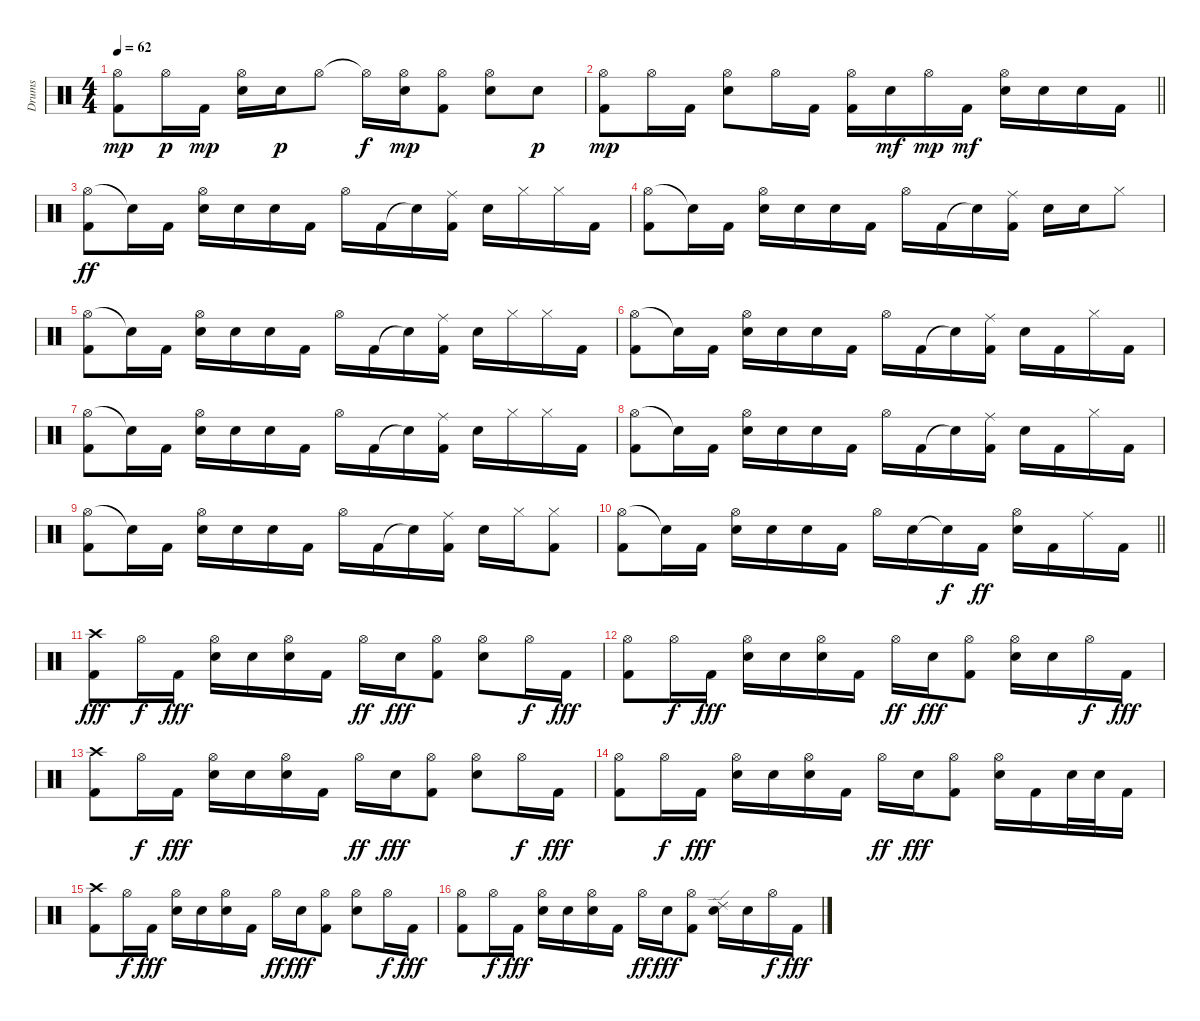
\track ("Drums" "Drums") {instrument percussion}
\staff {score}
\articulation defaults
\ts (4 4)
\tempo 62
\clef neutral
\ks c
("Hi-Hat (open)" "Kick (hit) 2").8{dy mp} "Hi-Hat (open)".16{dy p} "Kick (hit) 2".16{dy mp} ("Hi-Hat (open)" "Snare (hit) 2").16 "Snare (hit) 2".16{dy p} "Hi-Hat (open)".8 "Hi-Hat (open)"{t}.16{dy f} ("Hi-Hat (open)" "Snare (hit) 2").16{dy mp} ("Hi-Hat (open)" "Kick (hit) 2").8 ("Hi-Hat (open)" "Snare (hit) 2").8 "Snare (hit)".8{dy p} |
\barLineRight lightlight
("Hi-Hat (open)" "Kick (hit) 2").8{dy mp} "Hi-Hat (open)".16 "Kick (hit) 2".16 ("Hi-Hat (open)" "Snare (hit) 2").8 "Hi-Hat (open)".16 "Kick (hit) 2".16 ("Hi-Hat (open)" "Kick (hit) 2").16 "Snare (hit) 2".16{dy mf} "Hi-Hat (open)".16{dy mp} "Kick (hit) 2".16{dy mf} ("Hi-Hat (open)" "Snare (hit) 2").16 "Snare (hit) 2".16 "Snare (hit) 2".16 "Kick (hit) 2".16 |
\section ("" "")
("Hi-Hat (open)" "Kick (hit) 2").8{dy ff} "Snare (hit)"{t}.16 "Kick (hit) 2".16 ("Hi-Hat (open)" "Snare (hit) 2").16 "Snare (hit) 2".16 "Snare (hit) 2".16 "Kick (hit) 2".16 "Hi-Hat (open)".16 "Kick (hit) 2".16 "Snare (hit)"{t}.16 ("Ride (middle)" "Kick (hit) 2").16 "Snare (hit) 2".16 "Hi-Hat (closed)".16 "Hi-Hat (closed)".16 "Kick (hit) 2".16 |
("Hi-Hat (open)" "Kick (hit) 2").8 "Snare (hit)"{t}.16 "Kick (hit) 2".16 ("Hi-Hat (open)" "Snare (hit) 2").16 "Snare (hit) 2".16 "Snare (hit) 2".16 "Kick (hit) 2".16 "Hi-Hat (open)".16 "Kick (hit) 2".16 "Snare (hit)"{t}.16 ("Ride (middle)" "Kick (hit) 2").16 "Snare (hit) 2".16 "Snare (hit) 2".16 "Hi-Hat (closed)".8 |
("Hi-Hat (open)" "Kick (hit) 2").8 "Snare (hit)"{t}.16 "Kick (hit) 2".16 ("Hi-Hat (open)" "Snare (hit) 2").16 "Snare (hit) 2".16 "Snare (hit) 2".16 "Kick (hit) 2".16 "Hi-Hat (open)".16 "Kick (hit) 2".16 "Snare (hit)"{t}.16 ("Ride (middle)" "Kick (hit) 2").16 "Snare (hit) 2".16 "Hi-Hat (closed)".16 "Hi-Hat (closed)".16 "Kick (hit) 2".16 |
("Hi-Hat (open)" "Kick (hit) 2").8 "Snare (hit)"{t}.16 "Kick (hit) 2".16 ("Hi-Hat (open)" "Snare (hit) 2").16 "Snare (hit) 2".16 "Snare (hit) 2".16 "Kick (hit) 2".16 "Hi-Hat (open)".16 "Kick (hit) 2".16 "Snare (hit)"{t}.16 ("Ride (middle)" "Kick (hit) 2").16 "Snare (hit) 2".16 "Kick (hit) 2".16 "Hi-Hat (closed)".16 "Kick (hit) 2".16 |
("Hi-Hat (open)" "Kick (hit) 2").8 "Snare (hit)"{t}.16 "Kick (hit) 2".16 ("Hi-Hat (open)" "Snare (hit) 2").16 "Snare (hit) 2".16 "Snare (hit) 2".16 "Kick (hit) 2".16 "Hi-Hat (open)".16 "Kick (hit) 2".16 "Snare (hit)"{t}.16 ("Ride (middle)" "Kick (hit) 2").16 "Snare (hit) 2".16 "Hi-Hat (closed)".16 "Hi-Hat (closed)".16 "Kick (hit) 2".16 |
("Hi-Hat (open)" "Kick (hit) 2").8 "Snare (hit)"{t}.16 "Kick (hit) 2".16 ("Hi-Hat (open)" "Snare (hit) 2").16 "Snare (hit) 2".16 "Snare (hit) 2".16 "Kick (hit) 2".16 "Hi-Hat (open)".16 "Kick (hit) 2".16 "Snare (hit)"{t}.16 ("Ride (middle)" "Kick (hit) 2").16 "Snare (hit) 2".16 "Kick (hit) 2".16 "Hi-Hat (closed)".16 "Kick (hit) 2".16 |
("Hi-Hat (open)" "Kick (hit) 2").8 "Snare (hit)"{t}.16 "Kick (hit) 2".16 ("Hi-Hat (open)" "Snare (hit) 2").16 "Snare (hit) 2".16 "Snare (hit) 2".16 "Kick (hit) 2".16 "Hi-Hat (open)".16 "Kick (hit) 2".16 "Snare (hit)"{t}.16 ("Ride (middle)" "Kick (hit) 2").16 "Snare (hit) 2".16 "Hi-Hat (closed)".16 ("Hi-Hat (closed)" "Kick (hit) 2").8 |
\barLineRight lightlight
("Hi-Hat (open)" "Kick (hit) 2").8 "Snare (hit)"{t}.16 "Kick (hit) 2".16 ("Hi-Hat (open)" "Snare (hit) 2").16 "Snare (hit) 2".16 "Snare (hit) 2".16 "Kick (hit) 2".16 "Hi-Hat (open)".16 "Snare (hit) 2".16 "Snare (hit)"{t}.16{dy f} "Kick (hit) 2".16{dy ff} ("Hi-Hat (open)" "Snare (hit) 2").16 "Kick (hit) 2".16 "Ride (middle)".16 "Kick (hit) 2".16 |
\section ("" "")
("Crash high (hit)" "Kick (hit) 2").8{dy fff} "Hi-Hat (open)".16{dy f} "Kick (hit) 2".16{dy fff} ("Hi-Hat (open)" "Snare (hit) 2").16 "Snare (hit) 2".16 ("Hi-Hat (open)" "Snare (hit) 2").16 "Kick (hit) 2".16 "Hi-Hat (open)".16{dy ff} "Snare (hit) 2".16{dy fff} ("Hi-Hat (open)" "Kick (hit) 2").8 ("Hi-Hat (open)" "Snare (hit) 2").8 "Hi-Hat (open)".16{dy f} "Kick (hit) 2".16{dy fff} |
("Hi-Hat (open)" "Kick (hit) 2").8 "Hi-Hat (open)".16{dy f} "Kick (hit) 2".16{dy fff} ("Hi-Hat (open)" "Snare (hit) 2").16 "Snare (hit) 2".16 ("Hi-Hat (open)" "Snare (hit) 2").16 "Kick (hit) 2".16 "Hi-Hat (open)".16{dy ff} "Snare (hit) 2".16{dy fff} ("Hi-Hat (open)" "Kick (hit) 2").8 ("Hi-Hat (open)" "Snare (hit) 2").16 "Snare (hit) 2".16 "Hi-Hat (open)".16{dy f} "Kick (hit) 2".16{dy fff} |
("Crash high (hit)" "Kick (hit) 2").8 "Hi-Hat (open)".16{dy f} "Kick (hit) 2".16{dy fff} ("Hi-Hat (open)" "Snare (hit) 2").16 "Snare (hit) 2".16 ("Hi-Hat (open)" "Snare (hit) 2").16 "Kick (hit) 2".16 "Hi-Hat (open)".16{dy ff} "Snare (hit) 2".16{dy fff} ("Hi-Hat (open)" "Kick (hit) 2").8 ("Hi-Hat (open)" "Snare (hit) 2").8 "Hi-Hat (open)".16{dy f} "Kick (hit) 2".16{dy fff} |
("Hi-Hat (open)" "Kick (hit) 2").8 "Hi-Hat (open)".16{dy f} "Kick (hit) 2".16{dy fff} ("Hi-Hat (open)" "Snare (hit) 2").16 "Snare (hit) 2".16 ("Hi-Hat (open)" "Snare (hit) 2").16 "Kick (hit) 2".16 "Hi-Hat (open)".16{dy ff} "Snare (hit) 2".16{dy fff} ("Hi-Hat (open)" "Kick (hit) 2").8 ("Hi-Hat (open)" "Snare (hit) 2").16 "Kick (hit) 2".16 "Snare (hit) 2".32 "Snare (hit) 2".32 "Kick (hit) 2".16 |
("Crash high (hit)" "Kick (hit) 2").8 "Hi-Hat (open)".16{dy f} "Kick (hit) 2".16{dy fff} ("Hi-Hat (open)" "Snare (hit) 2").16 "Snare (hit) 2".16 ("Hi-Hat (open)" "Snare (hit) 2").16 "Kick (hit) 2".16 "Hi-Hat (open)".16{dy ff} "Snare (hit) 2".16{dy fff} ("Hi-Hat (open)" "Kick (hit) 2").8 ("Hi-Hat (open)" "Snare (hit) 2").8 "Hi-Hat (open)".16{dy f} "Kick (hit) 2".16{dy fff} |
("Hi-Hat (open)" "Kick (hit) 2").8 "Hi-Hat (open)".16{dy f} "Kick (hit) 2".16{dy fff} ("Hi-Hat (open)" "Snare (hit) 2").16 "Snare (hit) 2".16 ("Hi-Hat (open)" "Snare (hit) 2").16 "Kick (hit) 2".16 "Hi-Hat (open)".16{dy ff} "Snare (hit) 2".16{dy fff} ("Hi-Hat (open)" "Kick (hit) 2").8 ("Ride (edge) 2" "Snare (hit) 2").16 "Snare (hit) 2".16 "Hi-Hat (open)".16{dy f} "Kick (hit) 2".16{dy fff}
